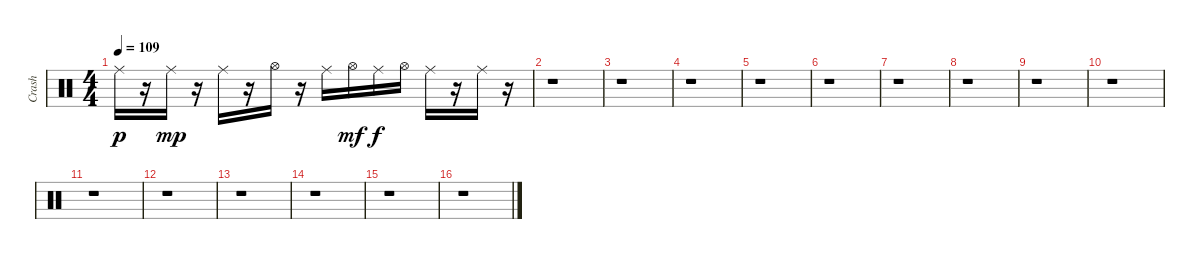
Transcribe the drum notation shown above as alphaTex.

\track ("Crash" "Crash") {instrument percussion}
\staff {score}
\articulation defaults
\ts (4 4)
\tempo 109
\clef neutral
\ks c "Ride (middle)".16{dy p}
r.16 "Ride (middle)".16{dy mp} r.16 "Ride (middle)".16 r.16 "Hi-Hat (open)".16 r.16 "Ride (middle)".16 "Hi-Hat (open)".16{dy mf} "Ride (middle)".16{dy f} "Hi-Hat (open)".16 "Ride (middle)".16 r.16 "Ride (middle)".16 r.16 |
r.1 |
r.1 |
r.1 |
r.1 |
r.1 |
r.1 |
r.1 |
r.1 |
r.1 |
r.1 |
r.1 |
r.1 |
r.1 |
r.1 |
r.1
